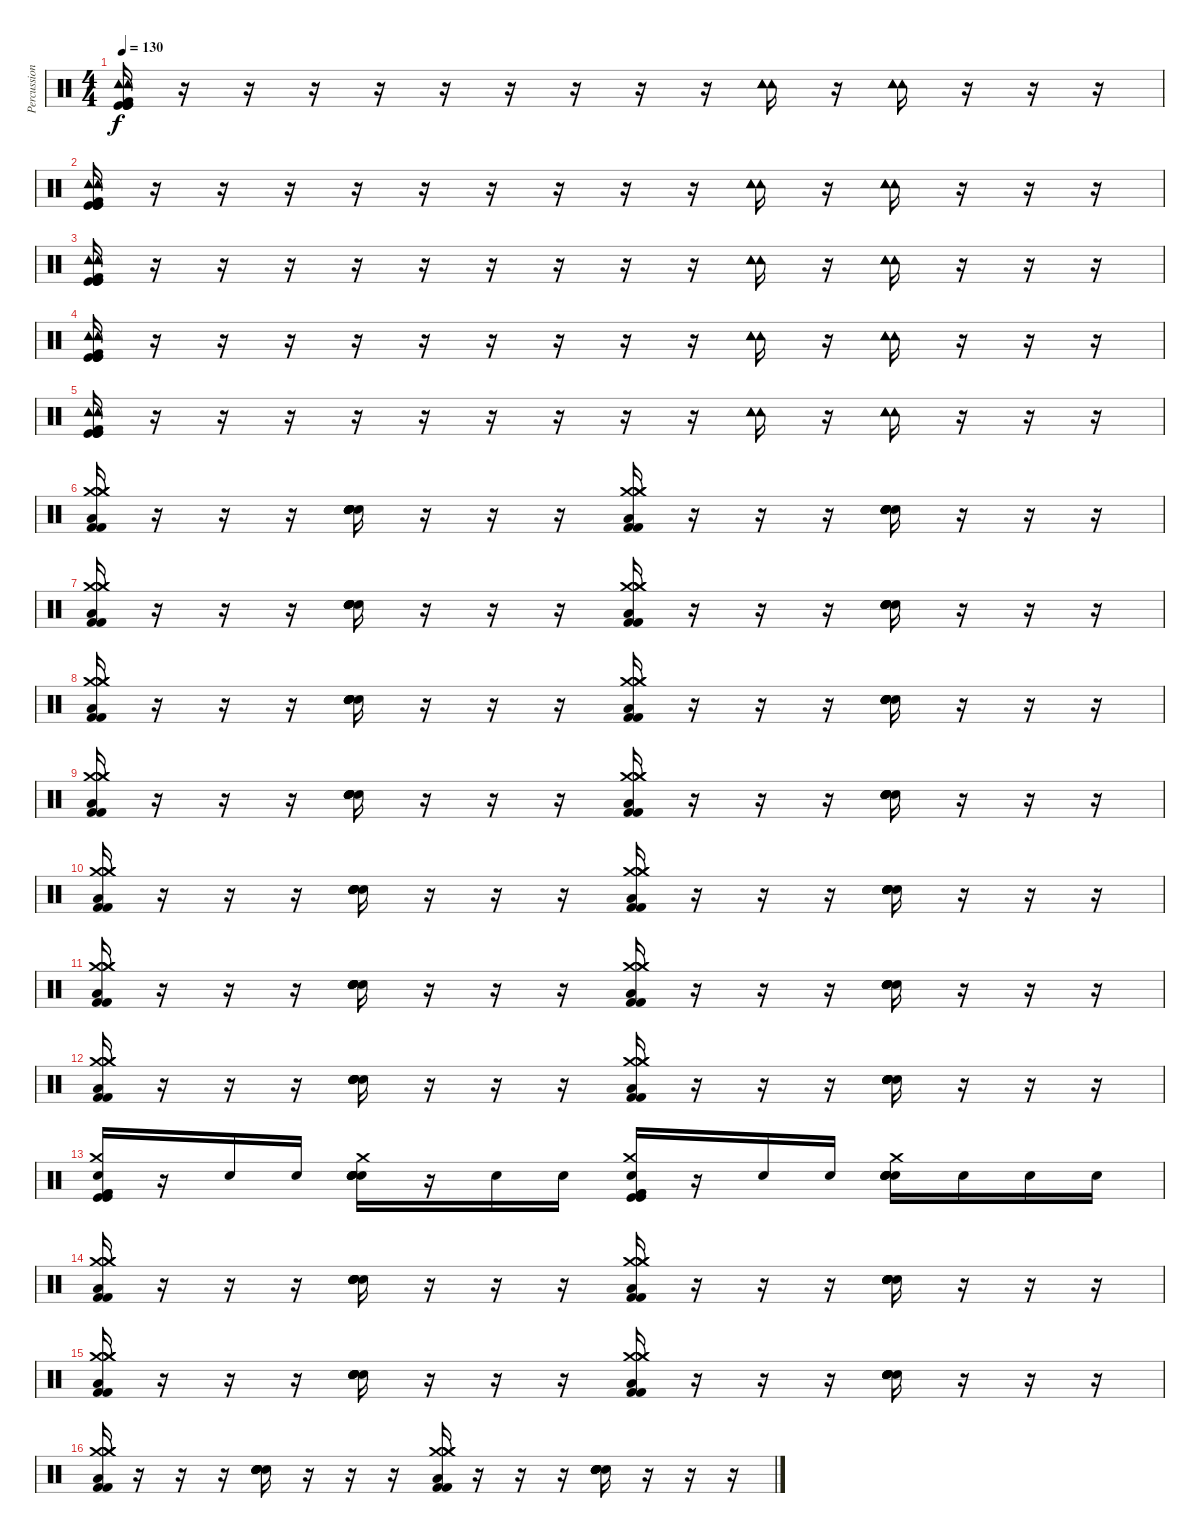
\track ("Percussion" "Percussion") {instrument percussion}
\staff {score}
\articulation defaults
\ts (4 4)
\tempo 130
\clef neutral
\ks c
("Kick (hit)" "Kick (hit)" "Kick (hit)" "Kick (hit) 2" "Tambourine (hit)" "Tambourine (hit)").16{dy f} r.16 r.16 r.16 r.16 r.16 r.16 r.16 r.16 r.16 ("Tambourine (hit)" "Tambourine (hit)" "Tambourine (hit)").16 r.16 ("Tambourine (hit)" "Tambourine (hit)" "Tambourine (hit)").16 r.16 r.16 r.16 |
("Kick (hit)" "Kick (hit)" "Kick (hit)" "Kick (hit) 2" "Tambourine (hit)" "Tambourine (hit)").16 r.16 r.16 r.16 r.16 r.16 r.16 r.16 r.16 r.16 ("Tambourine (hit)" "Tambourine (hit)" "Tambourine (hit)").16 r.16 ("Tambourine (hit)" "Tambourine (hit)" "Tambourine (hit)").16 r.16 r.16 r.16 |
("Kick (hit)" "Kick (hit)" "Kick (hit)" "Kick (hit) 2" "Tambourine (hit)" "Tambourine (hit)").16 r.16 r.16 r.16 r.16 r.16 r.16 r.16 r.16 r.16 ("Tambourine (hit)" "Tambourine (hit)" "Tambourine (hit)").16 r.16 ("Tambourine (hit)" "Tambourine (hit)" "Tambourine (hit)").16 r.16 r.16 r.16 |
("Kick (hit)" "Kick (hit)" "Kick (hit)" "Kick (hit) 2" "Tambourine (hit)" "Tambourine (hit)").16 r.16 r.16 r.16 r.16 r.16 r.16 r.16 r.16 r.16 ("Tambourine (hit)" "Tambourine (hit)" "Tambourine (hit)").16 r.16 ("Tambourine (hit)" "Tambourine (hit)" "Tambourine (hit)").16 r.16 r.16 r.16 |
("Kick (hit)" "Kick (hit)" "Kick (hit)" "Kick (hit) 2" "Tambourine (hit)" "Tambourine (hit)").16 r.16 r.16 r.16 r.16 r.16 r.16 r.16 r.16 r.16 ("Tambourine (hit)" "Tambourine (hit)" "Tambourine (hit)").16 r.16 ("Tambourine (hit)" "Tambourine (hit)" "Tambourine (hit)").16 r.16 r.16 r.16 |
("Crash medium (hit)" "Crash medium (hit)" "Crash medium (hit)" "Kick (hit) 2" "Kick (hit) 2" "Low Floor Tom (hit)").16 r.16 r.16 r.16 ("Snare (hit) 2" "Snare (hit) 2" "Snare (hit) 2" "Electric Snare (hit)" "Electric Snare (hit)" "Electric Snare (hit)").16 r.16 r.16 r.16 ("Crash medium (hit)" "Crash medium (hit)" "Crash medium (hit)" "Kick (hit) 2" "Kick (hit) 2" "Low Floor Tom (hit)").16 r.16 r.16 r.16 ("Snare (hit) 2" "Snare (hit) 2" "Snare (hit) 2" "Electric Snare (hit)" "Electric Snare (hit)" "Electric Snare (hit)").16 r.16 r.16 r.16 |
("Crash medium (hit)" "Crash medium (hit)" "Crash medium (hit)" "Kick (hit) 2" "Kick (hit) 2" "Low Floor Tom (hit)").16 r.16 r.16 r.16 ("Snare (hit) 2" "Snare (hit) 2" "Snare (hit) 2" "Electric Snare (hit)" "Electric Snare (hit)" "Electric Snare (hit)").16 r.16 r.16 r.16 ("Crash medium (hit)" "Crash medium (hit)" "Crash medium (hit)" "Kick (hit) 2" "Kick (hit) 2" "Low Floor Tom (hit)").16 r.16 r.16 r.16 ("Snare (hit) 2" "Snare (hit) 2" "Snare (hit) 2" "Electric Snare (hit)" "Electric Snare (hit)" "Electric Snare (hit)").16 r.16 r.16 r.16 |
("Crash medium (hit)" "Crash medium (hit)" "Crash medium (hit)" "Kick (hit) 2" "Kick (hit) 2" "Low Floor Tom (hit)").16 r.16 r.16 r.16 ("Snare (hit) 2" "Snare (hit) 2" "Snare (hit) 2" "Electric Snare (hit)" "Electric Snare (hit)" "Electric Snare (hit)").16 r.16 r.16 r.16 ("Crash medium (hit)" "Crash medium (hit)" "Crash medium (hit)" "Kick (hit) 2" "Kick (hit) 2" "Low Floor Tom (hit)").16 r.16 r.16 r.16 ("Snare (hit) 2" "Snare (hit) 2" "Snare (hit) 2" "Electric Snare (hit)" "Electric Snare (hit)" "Electric Snare (hit)").16 r.16 r.16 r.16 |
("Crash medium (hit)" "Crash medium (hit)" "Crash medium (hit)" "Kick (hit) 2" "Kick (hit) 2" "Low Floor Tom (hit)").16 r.16 r.16 r.16 ("Snare (hit) 2" "Snare (hit) 2" "Snare (hit) 2" "Electric Snare (hit)" "Electric Snare (hit)" "Electric Snare (hit)").16 r.16 r.16 r.16 ("Crash medium (hit)" "Crash medium (hit)" "Crash medium (hit)" "Kick (hit) 2" "Kick (hit) 2" "Low Floor Tom (hit)").16 r.16 r.16 r.16 ("Snare (hit) 2" "Snare (hit) 2" "Snare (hit) 2" "Electric Snare (hit)" "Electric Snare (hit)" "Electric Snare (hit)").16 r.16 r.16 r.16 |
("Crash medium (hit)" "Crash medium (hit)" "Crash medium (hit)" "Kick (hit) 2" "Kick (hit) 2" "Low Floor Tom (hit)").16 r.16 r.16 r.16 ("Snare (hit) 2" "Snare (hit) 2" "Snare (hit) 2" "Electric Snare (hit)" "Electric Snare (hit)" "Electric Snare (hit)").16 r.16 r.16 r.16 ("Crash medium (hit)" "Crash medium (hit)" "Crash medium (hit)" "Kick (hit) 2" "Kick (hit) 2" "Low Floor Tom (hit)").16 r.16 r.16 r.16 ("Snare (hit) 2" "Snare (hit) 2" "Snare (hit) 2" "Electric Snare (hit)" "Electric Snare (hit)" "Electric Snare (hit)").16 r.16 r.16 r.16 |
("Crash medium (hit)" "Crash medium (hit)" "Crash medium (hit)" "Kick (hit) 2" "Kick (hit) 2" "Low Floor Tom (hit)").16 r.16 r.16 r.16 ("Snare (hit) 2" "Snare (hit) 2" "Snare (hit) 2" "Electric Snare (hit)" "Electric Snare (hit)" "Electric Snare (hit)").16 r.16 r.16 r.16 ("Crash medium (hit)" "Crash medium (hit)" "Crash medium (hit)" "Kick (hit) 2" "Kick (hit) 2" "Low Floor Tom (hit)").16 r.16 r.16 r.16 ("Snare (hit) 2" "Snare (hit) 2" "Snare (hit) 2" "Electric Snare (hit)" "Electric Snare (hit)" "Electric Snare (hit)").16 r.16 r.16 r.16 |
("Crash medium (hit)" "Crash medium (hit)" "Crash medium (hit)" "Kick (hit) 2" "Kick (hit) 2" "Low Floor Tom (hit)").16 r.16 r.16 r.16 ("Snare (hit) 2" "Snare (hit) 2" "Snare (hit) 2" "Electric Snare (hit)" "Electric Snare (hit)" "Electric Snare (hit)").16 r.16 r.16 r.16 ("Crash medium (hit)" "Crash medium (hit)" "Crash medium (hit)" "Kick (hit) 2" "Kick (hit) 2" "Low Floor Tom (hit)").16 r.16 r.16 r.16 ("Snare (hit) 2" "Snare (hit) 2" "Snare (hit) 2" "Electric Snare (hit)" "Electric Snare (hit)" "Electric Snare (hit)").16 r.16 r.16 r.16 |
("Crash medium (hit)" "Kick (hit)" "Kick (hit)" "Kick (hit) 2" "Kick (hit) 2" "Electric Snare (hit)").16 r.16 "Electric Snare (hit)".16 "Electric Snare (hit)".16 ("Crash medium (hit)" "Snare (hit) 2" "Snare (hit) 2" "Electric Snare (hit)" "Electric Snare (hit)" "Electric Snare (hit)").16 r.16 "Electric Snare (hit)".16 "Electric Snare (hit)".16 ("Crash medium (hit)" "Kick (hit)" "Kick (hit)" "Kick (hit) 2" "Kick (hit) 2" "Electric Snare (hit)").16 r.16 "Electric Snare (hit)".16 "Electric Snare (hit)".16 ("Crash medium (hit)" "Snare (hit) 2" "Snare (hit) 2" "Electric Snare (hit)" "Electric Snare (hit)" "Electric Snare (hit)").16 "Electric Snare (hit)".16 "Electric Snare (hit)".16 "Electric Snare (hit)".16 |
("Crash medium (hit)" "Crash medium (hit)" "Crash medium (hit)" "Kick (hit) 2" "Kick (hit) 2" "Low Floor Tom (hit)").16 r.16 r.16 r.16 ("Snare (hit) 2" "Snare (hit) 2" "Snare (hit) 2" "Electric Snare (hit)" "Electric Snare (hit)" "Electric Snare (hit)").16 r.16 r.16 r.16 ("Crash medium (hit)" "Crash medium (hit)" "Crash medium (hit)" "Kick (hit) 2" "Kick (hit) 2" "Low Floor Tom (hit)").16 r.16 r.16 r.16 ("Snare (hit) 2" "Snare (hit) 2" "Snare (hit) 2" "Electric Snare (hit)" "Electric Snare (hit)" "Electric Snare (hit)").16 r.16 r.16 r.16 |
("Crash medium (hit)" "Crash medium (hit)" "Crash medium (hit)" "Kick (hit) 2" "Kick (hit) 2" "Low Floor Tom (hit)").16 r.16 r.16 r.16 ("Snare (hit) 2" "Snare (hit) 2" "Snare (hit) 2" "Electric Snare (hit)" "Electric Snare (hit)" "Electric Snare (hit)").16 r.16 r.16 r.16 ("Crash medium (hit)" "Crash medium (hit)" "Crash medium (hit)" "Kick (hit) 2" "Kick (hit) 2" "Low Floor Tom (hit)").16 r.16 r.16 r.16 ("Snare (hit) 2" "Snare (hit) 2" "Snare (hit) 2" "Electric Snare (hit)" "Electric Snare (hit)" "Electric Snare (hit)").16 r.16 r.16 r.16 |
("Crash medium (hit)" "Crash medium (hit)" "Crash medium (hit)" "Kick (hit) 2" "Kick (hit) 2" "Low Floor Tom (hit)").16 r.16 r.16 r.16 ("Snare (hit) 2" "Snare (hit) 2" "Snare (hit) 2" "Electric Snare (hit)" "Electric Snare (hit)" "Electric Snare (hit)").16 r.16 r.16 r.16 ("Crash medium (hit)" "Crash medium (hit)" "Crash medium (hit)" "Kick (hit) 2" "Kick (hit) 2" "Low Floor Tom (hit)").16 r.16 r.16 r.16 ("Snare (hit) 2" "Snare (hit) 2" "Snare (hit) 2" "Electric Snare (hit)" "Electric Snare (hit)" "Electric Snare (hit)").16 r.16 r.16 r.16
